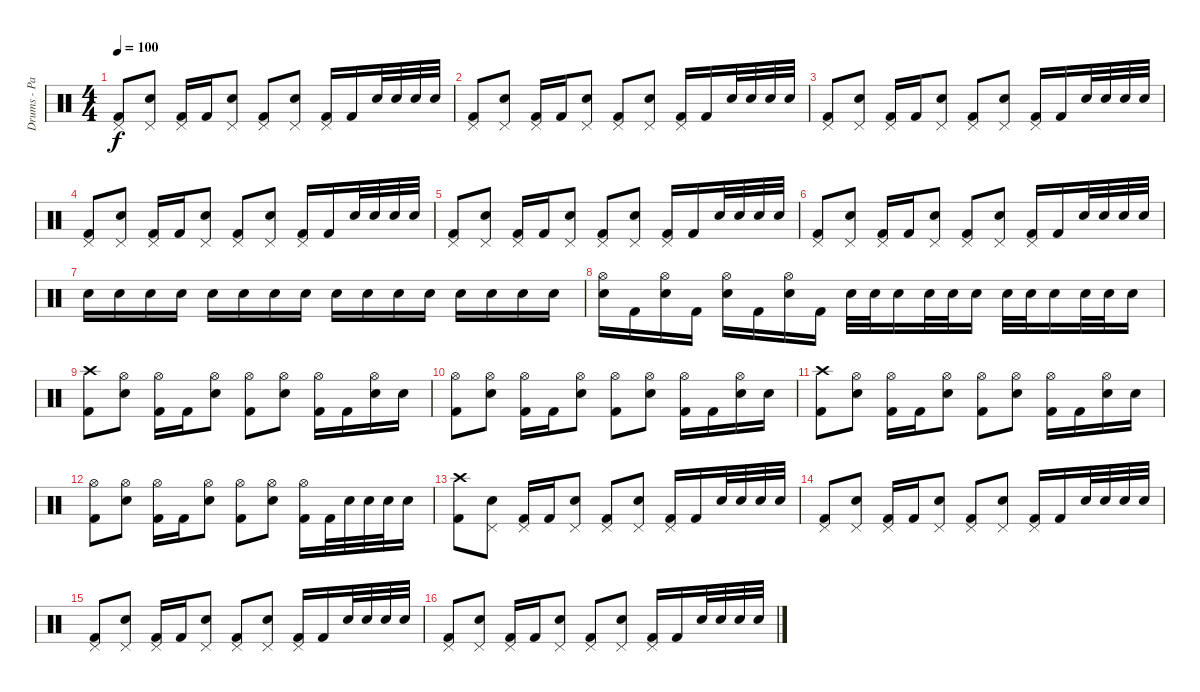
\track ("Drums - Pat Thetic" "Drums - Pa") {instrument percussion}
\staff {score}
\articulation defaults
\ts (4 4)
\tempo 100
\clef neutral
\ks c
("Pedal Hi-Hat (hit)" "Kick (hit) 2").8{dy f} ("Pedal Hi-Hat (hit)" "Electric Snare (hit)").8 ("Pedal Hi-Hat (hit)" "Kick (hit) 2").16 "Kick (hit) 2".16 ("Pedal Hi-Hat (hit)" "Electric Snare (hit)").8 ("Pedal Hi-Hat (hit)" "Kick (hit) 2").8 ("Pedal Hi-Hat (hit)" "Electric Snare (hit)").8 ("Pedal Hi-Hat (hit)" "Kick (hit) 2").16 "Kick (hit) 2".16 "Electric Snare (hit)".32 "Electric Snare (hit)".32 "Electric Snare (hit)".32 "Electric Snare (hit)".32 |
("Pedal Hi-Hat (hit)" "Kick (hit) 2").8 ("Pedal Hi-Hat (hit)" "Electric Snare (hit)").8 ("Pedal Hi-Hat (hit)" "Kick (hit) 2").16 "Kick (hit) 2".16 ("Pedal Hi-Hat (hit)" "Electric Snare (hit)").8 ("Pedal Hi-Hat (hit)" "Kick (hit) 2").8 ("Pedal Hi-Hat (hit)" "Electric Snare (hit)").8 ("Pedal Hi-Hat (hit)" "Kick (hit) 2").16 "Kick (hit) 2".16 "Electric Snare (hit)".32 "Electric Snare (hit)".32 "Electric Snare (hit)".32 "Electric Snare (hit)".32 |
("Pedal Hi-Hat (hit)" "Kick (hit) 2").8 ("Pedal Hi-Hat (hit)" "Electric Snare (hit)").8 ("Pedal Hi-Hat (hit)" "Kick (hit) 2").16 "Kick (hit) 2".16 ("Pedal Hi-Hat (hit)" "Electric Snare (hit)").8 ("Pedal Hi-Hat (hit)" "Kick (hit) 2").8 ("Pedal Hi-Hat (hit)" "Electric Snare (hit)").8 ("Pedal Hi-Hat (hit)" "Kick (hit) 2").16 "Kick (hit) 2".16 "Electric Snare (hit)".32 "Electric Snare (hit)".32 "Electric Snare (hit)".32 "Electric Snare (hit)".32 |
("Pedal Hi-Hat (hit)" "Kick (hit) 2").8 ("Pedal Hi-Hat (hit)" "Electric Snare (hit)").8 ("Pedal Hi-Hat (hit)" "Kick (hit) 2").16 "Kick (hit) 2".16 ("Pedal Hi-Hat (hit)" "Electric Snare (hit)").8 ("Pedal Hi-Hat (hit)" "Kick (hit) 2").8 ("Pedal Hi-Hat (hit)" "Electric Snare (hit)").8 ("Pedal Hi-Hat (hit)" "Kick (hit) 2").16 "Kick (hit) 2".16 "Electric Snare (hit)".32 "Electric Snare (hit)".32 "Electric Snare (hit)".32 "Electric Snare (hit)".32 |
("Pedal Hi-Hat (hit)" "Kick (hit) 2").8 ("Pedal Hi-Hat (hit)" "Electric Snare (hit)").8 ("Pedal Hi-Hat (hit)" "Kick (hit) 2").16 "Kick (hit) 2".16 ("Pedal Hi-Hat (hit)" "Electric Snare (hit)").8 ("Pedal Hi-Hat (hit)" "Kick (hit) 2").8 ("Pedal Hi-Hat (hit)" "Electric Snare (hit)").8 ("Pedal Hi-Hat (hit)" "Kick (hit) 2").16 "Kick (hit) 2".16 "Electric Snare (hit)".32 "Electric Snare (hit)".32 "Electric Snare (hit)".32 "Electric Snare (hit)".32 |
("Pedal Hi-Hat (hit)" "Kick (hit) 2").8 ("Pedal Hi-Hat (hit)" "Electric Snare (hit)").8 ("Pedal Hi-Hat (hit)" "Kick (hit) 2").16 "Kick (hit) 2".16 ("Pedal Hi-Hat (hit)" "Electric Snare (hit)").8 ("Pedal Hi-Hat (hit)" "Kick (hit) 2").8 ("Pedal Hi-Hat (hit)" "Electric Snare (hit)").8 ("Pedal Hi-Hat (hit)" "Kick (hit) 2").16 "Kick (hit) 2".16 "Electric Snare (hit)".32 "Electric Snare (hit)".32 "Electric Snare (hit)".32 "Electric Snare (hit)".32 |
"Electric Snare (hit)".16 "Electric Snare (hit)".16 "Electric Snare (hit)".16 "Electric Snare (hit)".16 "Electric Snare (hit)".16 "Electric Snare (hit)".16 "Electric Snare (hit)".16 "Electric Snare (hit)".16 "Electric Snare (hit)".16 "Electric Snare (hit)".16 "Electric Snare (hit)".16 "Electric Snare (hit)".16 "Electric Snare (hit)".16 "Electric Snare (hit)".16 "Electric Snare (hit)".16 "Electric Snare (hit)".16 |
("Hi-Hat (open)" "Electric Snare (hit)").16 "Kick (hit) 2".16 ("Hi-Hat (open)" "Electric Snare (hit)").16 "Kick (hit) 2".16 ("Hi-Hat (open)" "Electric Snare (hit)").16 "Kick (hit) 2".16 ("Hi-Hat (open)" "Electric Snare (hit)").16 "Kick (hit) 2".16 "Electric Snare (hit)".32 "Electric Snare (hit)".32 "Electric Snare (hit)".16 "Electric Snare (hit)".32 "Electric Snare (hit)".32 "Electric Snare (hit)".16 "Electric Snare (hit)".32 "Electric Snare (hit)".32 "Electric Snare (hit)".16 "Electric Snare (hit)".32 "Electric Snare (hit)".32 "Electric Snare (hit)".16 |
("Crash high (hit)" "Kick (hit) 2").8 ("Hi-Hat (open)" "Electric Snare (hit)").8 ("Hi-Hat (open)" "Kick (hit) 2").16 "Kick (hit) 2".16 ("Hi-Hat (open)" "Electric Snare (hit)").8 ("Hi-Hat (open)" "Kick (hit) 2").8 ("Hi-Hat (open)" "Electric Snare (hit)").8 ("Hi-Hat (open)" "Kick (hit) 2").16 "Kick (hit) 2".16 ("Hi-Hat (open)" "Electric Snare (hit)").16 "Electric Snare (hit)".16 |
("Hi-Hat (open)" "Kick (hit) 2").8 ("Hi-Hat (open)" "Electric Snare (hit)").8 ("Hi-Hat (open)" "Kick (hit) 2").16 "Kick (hit) 2".16 ("Hi-Hat (open)" "Electric Snare (hit)").8 ("Hi-Hat (open)" "Kick (hit) 2").8 ("Hi-Hat (open)" "Electric Snare (hit)").8 ("Hi-Hat (open)" "Kick (hit) 2").16 "Kick (hit) 2".16 ("Hi-Hat (open)" "Electric Snare (hit)").16 "Electric Snare (hit)".16 |
("Crash high (hit)" "Kick (hit) 2").8 ("Hi-Hat (open)" "Electric Snare (hit)").8 ("Hi-Hat (open)" "Kick (hit) 2").16 "Kick (hit) 2".16 ("Hi-Hat (open)" "Electric Snare (hit)").8 ("Hi-Hat (open)" "Kick (hit) 2").8 ("Hi-Hat (open)" "Electric Snare (hit)").8 ("Hi-Hat (open)" "Kick (hit) 2").16 "Kick (hit) 2".16 ("Hi-Hat (open)" "Electric Snare (hit)").16 "Electric Snare (hit)".16 |
("Hi-Hat (open)" "Kick (hit) 2").8 ("Hi-Hat (open)" "Electric Snare (hit)").8 ("Hi-Hat (open)" "Kick (hit) 2").16 "Kick (hit) 2".16 ("Hi-Hat (open)" "Electric Snare (hit)").8 ("Hi-Hat (open)" "Kick (hit) 2").8 ("Hi-Hat (open)" "Electric Snare (hit)").8 ("Hi-Hat (open)" "Kick (hit) 2").16 "Kick (hit) 2".32 "Electric Snare (hit)".32 "Electric Snare (hit)".32 "Electric Snare (hit)".32 "Electric Snare (hit)".16 |
("Crash high (hit)" "Kick (hit) 2").8 ("Pedal Hi-Hat (hit)" "Electric Snare (hit)").8 ("Pedal Hi-Hat (hit)" "Kick (hit) 2").16 "Kick (hit) 2".16 ("Pedal Hi-Hat (hit)" "Electric Snare (hit)").8 ("Pedal Hi-Hat (hit)" "Kick (hit) 2").8 ("Pedal Hi-Hat (hit)" "Electric Snare (hit)").8 ("Pedal Hi-Hat (hit)" "Kick (hit) 2").16 "Kick (hit) 2".16 "Electric Snare (hit)".32 "Electric Snare (hit)".32 "Electric Snare (hit)".32 "Electric Snare (hit)".32 |
("Pedal Hi-Hat (hit)" "Kick (hit) 2").8 ("Pedal Hi-Hat (hit)" "Electric Snare (hit)").8 ("Pedal Hi-Hat (hit)" "Kick (hit) 2").16 "Kick (hit) 2".16 ("Pedal Hi-Hat (hit)" "Electric Snare (hit)").8 ("Pedal Hi-Hat (hit)" "Kick (hit) 2").8 ("Pedal Hi-Hat (hit)" "Electric Snare (hit)").8 ("Pedal Hi-Hat (hit)" "Kick (hit) 2").16 "Kick (hit) 2".16 "Electric Snare (hit)".32 "Electric Snare (hit)".32 "Electric Snare (hit)".32 "Electric Snare (hit)".32 |
("Pedal Hi-Hat (hit)" "Kick (hit) 2").8 ("Pedal Hi-Hat (hit)" "Electric Snare (hit)").8 ("Pedal Hi-Hat (hit)" "Kick (hit) 2").16 "Kick (hit) 2".16 ("Pedal Hi-Hat (hit)" "Electric Snare (hit)").8 ("Pedal Hi-Hat (hit)" "Kick (hit) 2").8 ("Pedal Hi-Hat (hit)" "Electric Snare (hit)").8 ("Pedal Hi-Hat (hit)" "Kick (hit) 2").16 "Kick (hit) 2".16 "Electric Snare (hit)".32 "Electric Snare (hit)".32 "Electric Snare (hit)".32 "Electric Snare (hit)".32 |
("Pedal Hi-Hat (hit)" "Kick (hit) 2").8 ("Pedal Hi-Hat (hit)" "Electric Snare (hit)").8 ("Pedal Hi-Hat (hit)" "Kick (hit) 2").16 "Kick (hit) 2".16 ("Pedal Hi-Hat (hit)" "Electric Snare (hit)").8 ("Pedal Hi-Hat (hit)" "Kick (hit) 2").8 ("Pedal Hi-Hat (hit)" "Electric Snare (hit)").8 ("Pedal Hi-Hat (hit)" "Kick (hit) 2").16 "Kick (hit) 2".16 "Electric Snare (hit)".32 "Electric Snare (hit)".32 "Electric Snare (hit)".32 "Electric Snare (hit)".32
